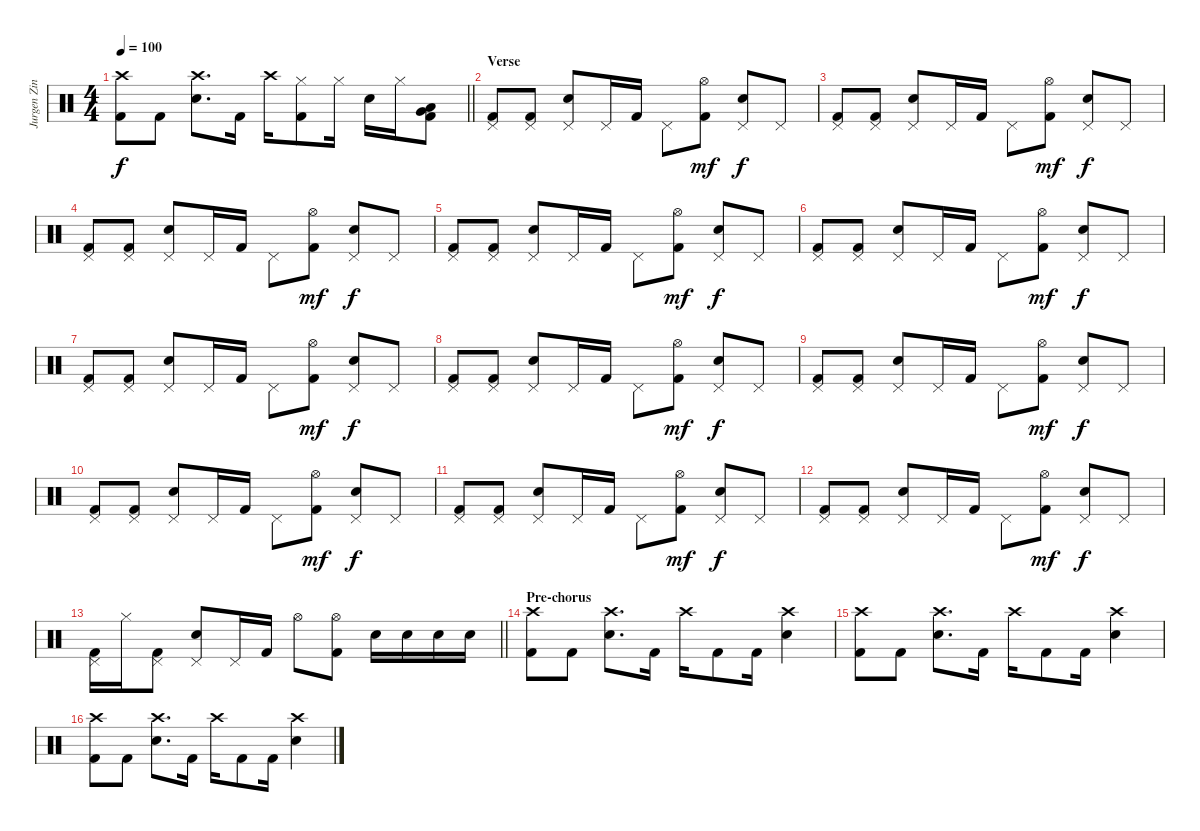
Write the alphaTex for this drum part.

\track ("Jurgen Zing" "Jurgen Zin") {instrument percussion}
\staff {score}
\articulation defaults
\ts (4 4)
\tempo 100
\clef neutral
\barLineRight lightlight
\ks c
("Crash high (hit)" "Kick (hit) 2").8{dy f} "Kick (hit) 2".8 ("Crash high (hit)" "Electric Snare (hit)").8{d} "Kick (hit) 2".16 "Crash high (hit)".16 ("Hi-Hat (closed)" "Kick (hit) 2").8 "Hi-Hat (closed)".16 "Electric Snare (hit)".16 "Hi-Hat (closed)".16 ("Very Low Tom (hit)" "Low Floor Tom (hit)" "Kick (hit) 2").8 |
\section ("" "Verse")
("Pedal Hi-Hat (hit)" "Kick (hit) 2").8 ("Pedal Hi-Hat (hit)" "Kick (hit) 2").8 ("Pedal Hi-Hat (hit)" "Electric Snare (hit)").8 "Pedal Hi-Hat (hit)".16 "Kick (hit) 2".16 "Pedal Hi-Hat (hit)".8 ("Hi-Hat (open)" "Kick (hit) 2").8{dy mf} ("Pedal Hi-Hat (hit)" "Electric Snare (hit)").8{dy f} "Pedal Hi-Hat (hit)".8 |
("Pedal Hi-Hat (hit)" "Kick (hit) 2").8 ("Pedal Hi-Hat (hit)" "Kick (hit) 2").8 ("Pedal Hi-Hat (hit)" "Electric Snare (hit)").8 "Pedal Hi-Hat (hit)".16 "Kick (hit) 2".16 "Pedal Hi-Hat (hit)".8 ("Hi-Hat (open)" "Kick (hit) 2").8{dy mf} ("Pedal Hi-Hat (hit)" "Electric Snare (hit)").8{dy f} "Pedal Hi-Hat (hit)".8 |
("Pedal Hi-Hat (hit)" "Kick (hit) 2").8 ("Pedal Hi-Hat (hit)" "Kick (hit) 2").8 ("Pedal Hi-Hat (hit)" "Electric Snare (hit)").8 "Pedal Hi-Hat (hit)".16 "Kick (hit) 2".16 "Pedal Hi-Hat (hit)".8 ("Hi-Hat (open)" "Kick (hit) 2").8{dy mf} ("Pedal Hi-Hat (hit)" "Electric Snare (hit)").8{dy f} "Pedal Hi-Hat (hit)".8 |
("Pedal Hi-Hat (hit)" "Kick (hit) 2").8 ("Pedal Hi-Hat (hit)" "Kick (hit) 2").8 ("Pedal Hi-Hat (hit)" "Electric Snare (hit)").8 "Pedal Hi-Hat (hit)".16 "Kick (hit) 2".16 "Pedal Hi-Hat (hit)".8 ("Hi-Hat (open)" "Kick (hit) 2").8{dy mf} ("Pedal Hi-Hat (hit)" "Electric Snare (hit)").8{dy f} "Pedal Hi-Hat (hit)".8 |
("Pedal Hi-Hat (hit)" "Kick (hit) 2").8 ("Pedal Hi-Hat (hit)" "Kick (hit) 2").8 ("Pedal Hi-Hat (hit)" "Electric Snare (hit)").8 "Pedal Hi-Hat (hit)".16 "Kick (hit) 2".16 "Pedal Hi-Hat (hit)".8 ("Hi-Hat (open)" "Kick (hit) 2").8{dy mf} ("Pedal Hi-Hat (hit)" "Electric Snare (hit)").8{dy f} "Pedal Hi-Hat (hit)".8 |
("Pedal Hi-Hat (hit)" "Kick (hit) 2").8 ("Pedal Hi-Hat (hit)" "Kick (hit) 2").8 ("Pedal Hi-Hat (hit)" "Electric Snare (hit)").8 "Pedal Hi-Hat (hit)".16 "Kick (hit) 2".16 "Pedal Hi-Hat (hit)".8 ("Hi-Hat (open)" "Kick (hit) 2").8{dy mf} ("Pedal Hi-Hat (hit)" "Electric Snare (hit)").8{dy f} "Pedal Hi-Hat (hit)".8 |
("Pedal Hi-Hat (hit)" "Kick (hit) 2").8 ("Pedal Hi-Hat (hit)" "Kick (hit) 2").8 ("Pedal Hi-Hat (hit)" "Electric Snare (hit)").8 "Pedal Hi-Hat (hit)".16 "Kick (hit) 2".16 "Pedal Hi-Hat (hit)".8 ("Hi-Hat (open)" "Kick (hit) 2").8{dy mf} ("Pedal Hi-Hat (hit)" "Electric Snare (hit)").8{dy f} "Pedal Hi-Hat (hit)".8 |
("Pedal Hi-Hat (hit)" "Kick (hit) 2").8 ("Pedal Hi-Hat (hit)" "Kick (hit) 2").8 ("Pedal Hi-Hat (hit)" "Electric Snare (hit)").8 "Pedal Hi-Hat (hit)".16 "Kick (hit) 2".16 "Pedal Hi-Hat (hit)".8 ("Hi-Hat (open)" "Kick (hit) 2").8{dy mf} ("Pedal Hi-Hat (hit)" "Electric Snare (hit)").8{dy f} "Pedal Hi-Hat (hit)".8 |
("Pedal Hi-Hat (hit)" "Kick (hit) 2").8 ("Pedal Hi-Hat (hit)" "Kick (hit) 2").8 ("Pedal Hi-Hat (hit)" "Electric Snare (hit)").8 "Pedal Hi-Hat (hit)".16 "Kick (hit) 2".16 "Pedal Hi-Hat (hit)".8 ("Hi-Hat (open)" "Kick (hit) 2").8{dy mf} ("Pedal Hi-Hat (hit)" "Electric Snare (hit)").8{dy f} "Pedal Hi-Hat (hit)".8 |
("Pedal Hi-Hat (hit)" "Kick (hit) 2").8 ("Pedal Hi-Hat (hit)" "Kick (hit) 2").8 ("Pedal Hi-Hat (hit)" "Electric Snare (hit)").8 "Pedal Hi-Hat (hit)".16 "Kick (hit) 2".16 "Pedal Hi-Hat (hit)".8 ("Hi-Hat (open)" "Kick (hit) 2").8{dy mf} ("Pedal Hi-Hat (hit)" "Electric Snare (hit)").8{dy f} "Pedal Hi-Hat (hit)".8 |
("Pedal Hi-Hat (hit)" "Kick (hit) 2").8 ("Pedal Hi-Hat (hit)" "Kick (hit) 2").8 ("Pedal Hi-Hat (hit)" "Electric Snare (hit)").8 "Pedal Hi-Hat (hit)".16 "Kick (hit) 2".16 "Pedal Hi-Hat (hit)".8 ("Hi-Hat (open)" "Kick (hit) 2").8{dy mf} ("Pedal Hi-Hat (hit)" "Electric Snare (hit)").8{dy f} "Pedal Hi-Hat (hit)".8 |
\barLineRight lightlight
("Pedal Hi-Hat (hit)" "Kick (hit) 2").16 "Hi-Hat (closed)".16 ("Pedal Hi-Hat (hit)" "Kick (hit) 2").8 ("Pedal Hi-Hat (hit)" "Electric Snare (hit)").8 "Pedal Hi-Hat (hit)".16 "Kick (hit) 2".16 "Hi-Hat (open)".8 ("Hi-Hat (open)" "Kick (hit) 2").8 "Electric Snare (hit)".16 "Electric Snare (hit)".16 "Electric Snare (hit)".16 "Electric Snare (hit)".16 |
\section ("" "Pre-chorus")
("Crash high (hit)" "Kick (hit) 2").8 "Kick (hit) 2".8 ("Crash high (hit)" "Electric Snare (hit)").8{d} "Kick (hit) 2".16 "Crash high (hit)".16 "Kick (hit) 2".8 "Kick (hit) 2".16 ("Crash high (hit)" "Electric Snare (hit)").4 |
("Crash high (hit)" "Kick (hit) 2").8 "Kick (hit) 2".8 ("Crash high (hit)" "Electric Snare (hit)").8{d} "Kick (hit) 2".16 "Crash high (hit)".16 "Kick (hit) 2".8 "Kick (hit) 2".16 ("Crash high (hit)" "Electric Snare (hit)").4 |
("Crash high (hit)" "Kick (hit) 2").8 "Kick (hit) 2".8 ("Crash high (hit)" "Electric Snare (hit)").8{d} "Kick (hit) 2".16 "Crash high (hit)".16 "Kick (hit) 2".8 "Kick (hit) 2".16 ("Crash high (hit)" "Electric Snare (hit)").4
